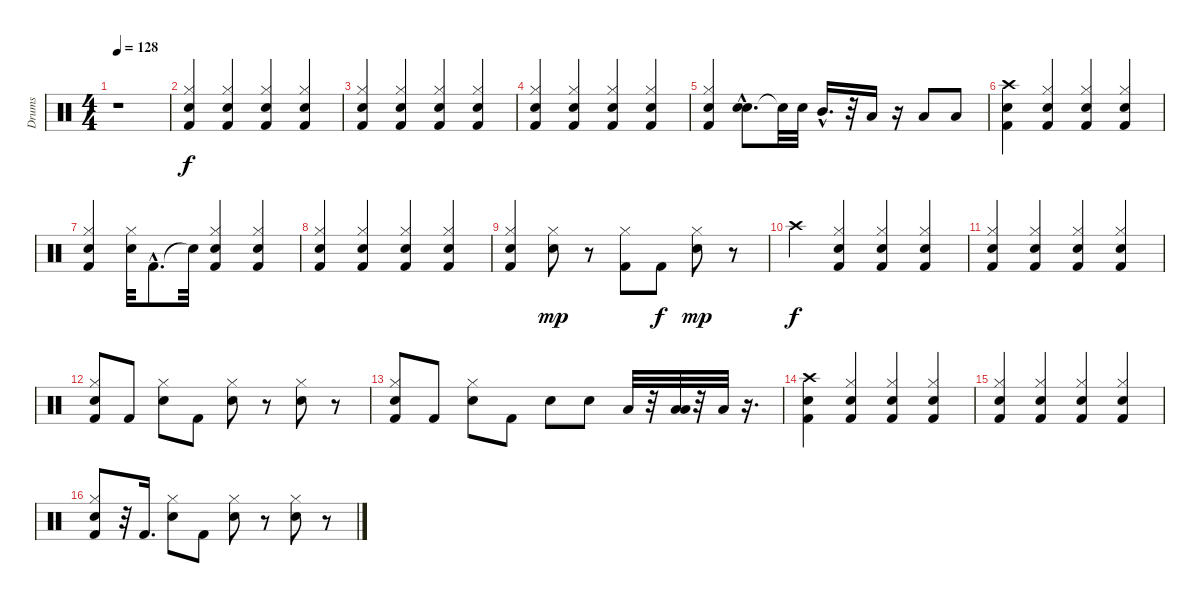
\track ("Drums" "Drums") {instrument percussion}
\staff {score}
\articulation defaults
\ts (4 4)
\tempo 128
\clef neutral
\ks c
r.1{dy f} |
("Snare (hit) 2" "Hi-Hat (closed)" "Kick (hit) 2").4 ("Snare (hit) 2" "Hi-Hat (closed)" "Kick (hit) 2").4 ("Kick (hit) 2" "Hi-Hat (closed)" "Snare (hit) 2").4 ("Hi-Hat (closed)" "Kick (hit) 2" "Snare (hit) 2").4 |
("Kick (hit) 2" "Snare (hit) 2" "Hi-Hat (closed)").4 ("Snare (hit) 2" "Kick (hit) 2" "Hi-Hat (closed)").4 ("Kick (hit) 2" "Snare (hit) 2" "Hi-Hat (closed)").4 ("Hi-Hat (closed)" "Kick (hit) 2" "Snare (hit) 2").4 |
("Kick (hit) 2" "Hi-Hat (closed)" "Snare (hit) 2").4 ("Hi-Hat (closed)" "Snare (hit) 2" "Kick (hit) 2").4 ("Hi-Hat (closed)" "Snare (hit) 2" "Kick (hit) 2").4 ("Hi-Hat (closed)" "Snare (hit) 2" "Kick (hit) 2").4 |
("Hi-Hat (closed)" "Snare (hit) 2" "Kick (hit) 2").4 ("Snare (hit) 2" "Electric Snare (hit)"{hac}).8{d} "Snare (hit)"{t}.32 "Snare (hit) 2".32 "Mid Tom (hit)"{hac}.16{d} r.32 "Low Tom (hit)".16 r.16 "Low Tom (hit)".8 "Low Tom (hit)".8 |
("Kick (hit) 2" "Crash high (hit)" "Snare (hit) 2").4 ("Snare (hit) 2" "Kick (hit) 2" "Hi-Hat (closed)").4 ("Kick (hit) 2" "Hi-Hat (closed)" "Snare (hit) 2").4 ("Snare (hit) 2" "Hi-Hat (closed)" "Kick (hit) 2").4 |
("Snare (hit) 2" "Hi-Hat (closed)" "Kick (hit) 2").4 ("Snare (hit) 2" "Hi-Hat (closed)").32 "Kick (hit) 2"{hac}.8{d} "Snare (hit)"{t}.32 ("Kick (hit) 2" "Hi-Hat (closed)" "Snare (hit) 2").4 ("Hi-Hat (closed)" "Snare (hit) 2" "Kick (hit) 2").4 |
("Hi-Hat (closed)" "Snare (hit) 2" "Kick (hit) 2").4 ("Hi-Hat (closed)" "Kick (hit) 2" "Snare (hit) 2").4 ("Snare (hit) 2" "Hi-Hat (closed)" "Kick (hit) 2").4 ("Hi-Hat (closed)" "Snare (hit) 2" "Kick (hit) 2").4 |
("Hi-Hat (closed)" "Snare (hit) 2" "Kick (hit) 2").4 ("Hi-Hat (closed)" "Electric Snare (hit)").8{dy mp} r.8 ("Hi-Hat (closed)" "Kick (hit) 2").8 "Kick (hit) 2".8{dy f} ("Electric Snare (hit)" "Hi-Hat (closed)").8{dy mp} r.8 |
"Crash high (hit)".4{dy f} ("Snare (hit) 2" "Kick (hit) 2" "Hi-Hat (closed)").4 ("Kick (hit) 2" "Hi-Hat (closed)" "Snare (hit) 2").4 ("Hi-Hat (closed)" "Snare (hit) 2" "Kick (hit) 2").4 |
("Hi-Hat (closed)" "Snare (hit) 2" "Kick (hit) 2").4 ("Kick (hit) 2" "Hi-Hat (closed)" "Snare (hit) 2").4 ("Kick (hit) 2" "Hi-Hat (closed)" "Snare (hit) 2").4 ("Hi-Hat (closed)" "Snare (hit) 2" "Kick (hit) 2").4 |
("Kick (hit) 2" "Hi-Hat (closed)" "Snare (hit) 2").8 "Kick (hit) 2".8 ("Snare (hit) 2" "Hi-Hat (closed)").8 "Kick (hit) 2".8 ("Snare (hit) 2" "Hi-Hat (closed)").8 r.8 ("Snare (hit) 2" "Hi-Hat (closed)").8 r.8 |
("Kick (hit) 2" "Snare (hit) 2" "Hi-Hat (closed)").8 "Kick (hit) 2".8 ("Snare (hit) 2" "Hi-Hat (closed)").8 "Kick (hit) 2".8 "Snare (hit) 2".8 "Snare (hit) 2".8 "Low Tom (hit)".32 r.32 ("Low Tom (hit)" "Low Tom (hit)").32 r.32 "Low Tom (hit)".32 r.16{d} |
("Snare (hit) 2" "Kick (hit) 2" "Crash high (hit)").4 ("Hi-Hat (closed)" "Kick (hit) 2" "Snare (hit) 2").4 ("Kick (hit) 2" "Hi-Hat (closed)" "Snare (hit) 2").4 ("Hi-Hat (closed)" "Kick (hit) 2" "Snare (hit) 2").4 |
("Snare (hit) 2" "Kick (hit) 2" "Hi-Hat (closed)").4 ("Snare (hit) 2" "Hi-Hat (closed)" "Kick (hit) 2").4 ("Kick (hit) 2" "Hi-Hat (closed)" "Snare (hit) 2").4 ("Kick (hit) 2" "Hi-Hat (closed)" "Snare (hit) 2").4 |
("Snare (hit) 2" "Hi-Hat (closed)" "Kick (hit) 2").8 r.32 "Kick (hit) 2".16{d} ("Hi-Hat (closed)" "Snare (hit) 2").8 "Kick (hit) 2".8 ("Snare (hit) 2" "Hi-Hat (closed)").8 r.8 ("Snare (hit) 2" "Hi-Hat (closed)").8 r.8
